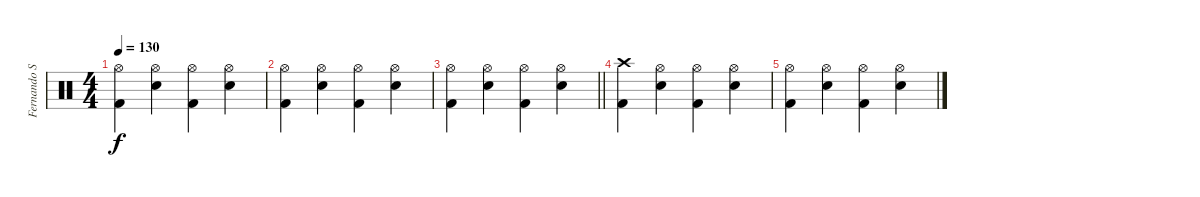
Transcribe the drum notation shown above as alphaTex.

\track ("Fernando Scarcella" "Fernando S") {instrument percussion}
\staff {score}
\articulation defaults
\ts (4 4)
\tempo 130
\clef neutral
\ks c
("Hi-Hat (open)" "Kick (hit) 2").4{dy f} ("Hi-Hat (open)" "Snare (hit) 2").4 ("Hi-Hat (open)" "Kick (hit) 2").4 ("Hi-Hat (open)" "Snare (hit) 2").4 |
("Hi-Hat (open)" "Kick (hit) 2").4 ("Hi-Hat (open)" "Snare (hit) 2").4 ("Hi-Hat (open)" "Kick (hit) 2").4 ("Hi-Hat (open)" "Snare (hit) 2").4 |
\barLineRight lightlight
("Hi-Hat (open)" "Kick (hit) 2").4 ("Hi-Hat (open)" "Snare (hit) 2").4 ("Hi-Hat (open)" "Kick (hit) 2").4 ("Hi-Hat (open)" "Snare (hit) 2").4 |
("Crash high (hit)" "Kick (hit) 2").4 ("Hi-Hat (open)" "Snare (hit) 2").4 ("Hi-Hat (open)" "Kick (hit) 2").4 ("Hi-Hat (open)" "Snare (hit) 2").4 |
("Hi-Hat (open)" "Kick (hit) 2").4 ("Hi-Hat (open)" "Snare (hit) 2").4 ("Hi-Hat (open)" "Kick (hit) 2").4 ("Hi-Hat (open)" "Snare (hit) 2").4
